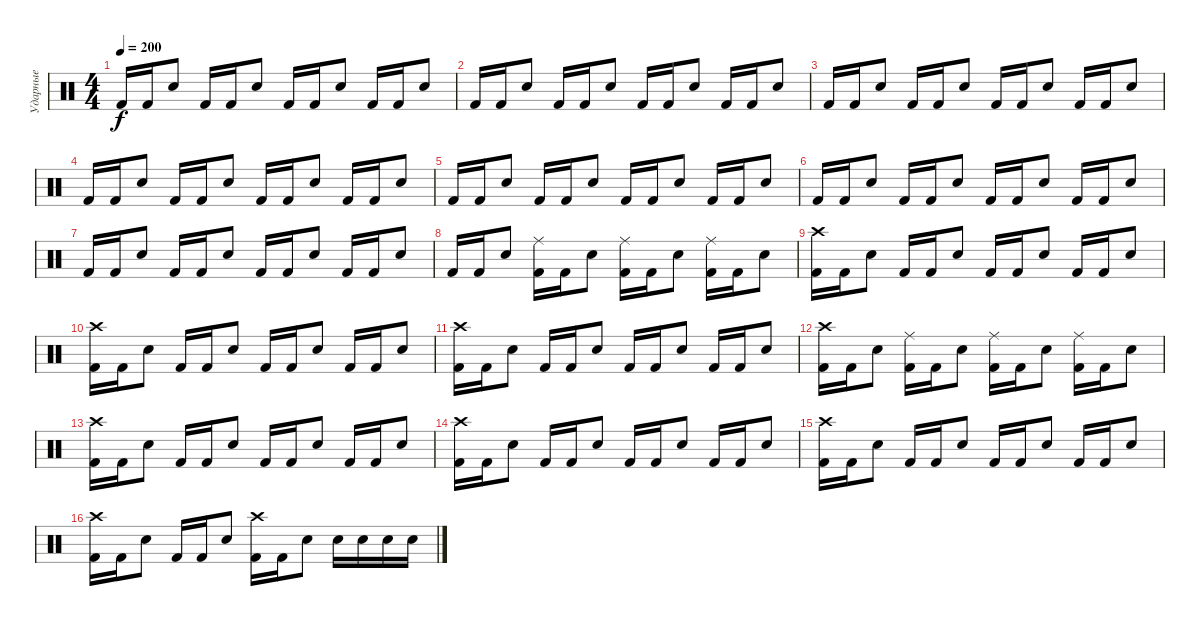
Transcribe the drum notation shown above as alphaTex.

\track ("Ударные" "Ударные") {instrument percussion}
\staff {score}
\articulation defaults
\ts (4 4)
\tempo 200
\clef neutral
\ks c "Kick (hit) 2".16{dy f} "Kick (hit) 2".16 "Electric Snare (hit)".8 "Kick (hit) 2".16 "Kick (hit) 2".16 "Electric Snare (hit)".8 "Kick (hit) 2".16 "Kick (hit) 2".16 "Electric Snare (hit)".8 "Kick (hit) 2".16 "Kick (hit) 2".16 "Electric Snare (hit)".8
|
"Kick (hit) 2".16 "Kick (hit) 2".16 "Electric Snare (hit)".8 "Kick (hit) 2".16 "Kick (hit) 2".16 "Electric Snare (hit)".8 "Kick (hit) 2".16 "Kick (hit) 2".16 "Electric Snare (hit)".8 "Kick (hit) 2".16 "Kick (hit) 2".16 "Electric Snare (hit)".8 |
"Kick (hit) 2".16 "Kick (hit) 2".16 "Electric Snare (hit)".8 "Kick (hit) 2".16 "Kick (hit) 2".16 "Electric Snare (hit)".8 "Kick (hit) 2".16 "Kick (hit) 2".16 "Electric Snare (hit)".8 "Kick (hit) 2".16 "Kick (hit) 2".16 "Electric Snare (hit)".8 |
"Kick (hit) 2".16 "Kick (hit) 2".16 "Electric Snare (hit)".8 "Kick (hit) 2".16 "Kick (hit) 2".16 "Electric Snare (hit)".8 "Kick (hit) 2".16 "Kick (hit) 2".16 "Electric Snare (hit)".8 "Kick (hit) 2".16 "Kick (hit) 2".16 "Electric Snare (hit)".8 |
"Kick (hit) 2".16 "Kick (hit) 2".16 "Electric Snare (hit)".8 "Kick (hit) 2".16 "Kick (hit) 2".16 "Electric Snare (hit)".8 "Kick (hit) 2".16 "Kick (hit) 2".16 "Electric Snare (hit)".8 "Kick (hit) 2".16 "Kick (hit) 2".16 "Electric Snare (hit)".8 |
"Kick (hit) 2".16 "Kick (hit) 2".16 "Electric Snare (hit)".8 "Kick (hit) 2".16 "Kick (hit) 2".16 "Electric Snare (hit)".8 "Kick (hit) 2".16 "Kick (hit) 2".16 "Electric Snare (hit)".8 "Kick (hit) 2".16 "Kick (hit) 2".16 "Electric Snare (hit)".8 |
"Kick (hit) 2".16 "Kick (hit) 2".16 "Electric Snare (hit)".8 "Kick (hit) 2".16 "Kick (hit) 2".16 "Electric Snare (hit)".8 "Kick (hit) 2".16 "Kick (hit) 2".16 "Electric Snare (hit)".8 "Kick (hit) 2".16 "Kick (hit) 2".16 "Electric Snare (hit)".8 |
"Kick (hit) 2".16 "Kick (hit) 2".16 "Electric Snare (hit)".8 ("Kick (hit) 2" "Ride (middle)").16 "Kick (hit) 2".16 "Electric Snare (hit)".8 ("Kick (hit) 2" "Ride (middle)").16 "Kick (hit) 2".16 "Electric Snare (hit)".8 ("Kick (hit) 2" "Ride (middle)").16 "Kick (hit) 2".16 "Electric Snare (hit)".8 |
("Kick (hit) 2" "Crash high (hit)").16 "Kick (hit) 2".16 "Electric Snare (hit)".8 "Kick (hit) 2".16 "Kick (hit) 2".16 "Electric Snare (hit)".8 "Kick (hit) 2".16 "Kick (hit) 2".16 "Electric Snare (hit)".8 "Kick (hit) 2".16 "Kick (hit) 2".16 "Electric Snare (hit)".8 |
("Kick (hit) 2" "Crash high (hit)").16 "Kick (hit) 2".16 "Electric Snare (hit)".8 "Kick (hit) 2".16 "Kick (hit) 2".16 "Electric Snare (hit)".8 "Kick (hit) 2".16 "Kick (hit) 2".16 "Electric Snare (hit)".8 "Kick (hit) 2".16 "Kick (hit) 2".16 "Electric Snare (hit)".8 |
("Kick (hit) 2" "Crash high (hit)").16 "Kick (hit) 2".16 "Electric Snare (hit)".8 "Kick (hit) 2".16 "Kick (hit) 2".16 "Electric Snare (hit)".8 "Kick (hit) 2".16 "Kick (hit) 2".16 "Electric Snare (hit)".8 "Kick (hit) 2".16 "Kick (hit) 2".16 "Electric Snare (hit)".8 |
("Kick (hit) 2" "Crash high (hit)").16 "Kick (hit) 2".16 "Electric Snare (hit)".8 ("Kick (hit) 2" "Ride (middle)").16 "Kick (hit) 2".16 "Electric Snare (hit)".8 ("Kick (hit) 2" "Ride (middle)").16 "Kick (hit) 2".16 "Electric Snare (hit)".8 ("Kick (hit) 2" "Ride (middle)").16 "Kick (hit) 2".16 "Electric Snare (hit)".8 |
("Kick (hit) 2" "Crash high (hit)").16 "Kick (hit) 2".16 "Electric Snare (hit)".8 "Kick (hit) 2".16 "Kick (hit) 2".16 "Electric Snare (hit)".8 "Kick (hit) 2".16 "Kick (hit) 2".16 "Electric Snare (hit)".8 "Kick (hit) 2".16 "Kick (hit) 2".16 "Electric Snare (hit)".8 |
("Kick (hit) 2" "Crash high (hit)").16 "Kick (hit) 2".16 "Electric Snare (hit)".8 "Kick (hit) 2".16 "Kick (hit) 2".16 "Electric Snare (hit)".8 "Kick (hit) 2".16 "Kick (hit) 2".16 "Electric Snare (hit)".8 "Kick (hit) 2".16 "Kick (hit) 2".16 "Electric Snare (hit)".8 |
("Kick (hit) 2" "Crash high (hit)").16 "Kick (hit) 2".16 "Electric Snare (hit)".8 "Kick (hit) 2".16 "Kick (hit) 2".16 "Electric Snare (hit)".8 "Kick (hit) 2".16 "Kick (hit) 2".16 "Electric Snare (hit)".8 "Kick (hit) 2".16 "Kick (hit) 2".16 "Electric Snare (hit)".8 |
("Kick (hit) 2" "Crash high (hit)").16 "Kick (hit) 2".16 "Electric Snare (hit)".8 "Kick (hit) 2".16 "Kick (hit) 2".16 "Electric Snare (hit)".8 ("Kick (hit) 2" "Crash high (hit)").16 "Kick (hit) 2".16 "Electric Snare (hit)".8 "Electric Snare (hit)".16 "Electric Snare (hit)".16 "Electric Snare (hit)".16 "Electric Snare (hit)".16
